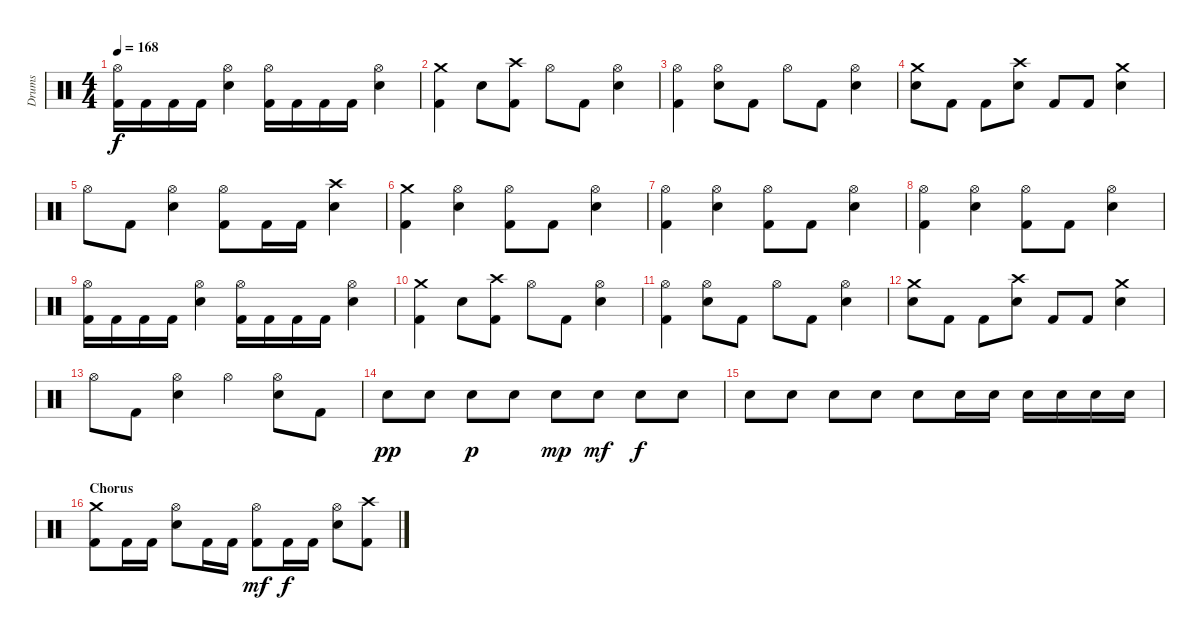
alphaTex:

\track ("Drums" "Drums") {instrument percussion}
\staff {score}
\articulation defaults
\ts (4 4)
\tempo 168
\clef neutral
\ks c
("Kick (hit) 2" "Hi-Hat (open)").16{dy f} "Kick (hit) 2".16 "Kick (hit) 2".16 "Kick (hit) 2".16 ("Electric Snare (hit)" "Hi-Hat (open)").4 ("Kick (hit) 2" "Hi-Hat (open)").16 "Kick (hit) 2".16 "Kick (hit) 2".16 "Kick (hit) 2".16 ("Electric Snare (hit)" "Hi-Hat (open)").4 |
("Kick (hit) 2" "Crash medium (hit)").4 "Electric Snare (hit)".8 ("Kick (hit) 2" "Crash high (hit)").8 "Hi-Hat (open)".8 "Kick (hit) 2".8 ("Electric Snare (hit)" "Hi-Hat (open)").4 |
("Kick (hit) 2" "Hi-Hat (open)").4 ("Electric Snare (hit)" "Hi-Hat (open)").8 "Kick (hit) 2".8 "Hi-Hat (open)".8 "Kick (hit) 2".8 ("Electric Snare (hit)" "Hi-Hat (open)").4 |
("Electric Snare (hit)" "Crash medium (hit)").8 "Kick (hit) 2".8 "Kick (hit) 2".8 ("Electric Snare (hit)" "Crash high (hit)").8 "Kick (hit) 2".8 "Kick (hit) 2".8 ("Electric Snare (hit)" "Crash medium (hit)").4 |
"Hi-Hat (open)".8 "Kick (hit) 2".8 ("Electric Snare (hit)" "Hi-Hat (open)").4 ("Kick (hit) 2" "Hi-Hat (open)").8 "Kick (hit) 2".16 "Kick (hit) 2".16 ("Electric Snare (hit)" "Crash high (hit)").4 |
\section ("" "")
("Kick (hit) 2" "Crash medium (hit)").4 ("Electric Snare (hit)" "Hi-Hat (open)").4 ("Kick (hit) 2" "Hi-Hat (open)").8 "Kick (hit) 2".8 ("Electric Snare (hit)" "Hi-Hat (open)").4 |
("Kick (hit) 2" "Hi-Hat (open)").4 ("Electric Snare (hit)" "Hi-Hat (open)").4 ("Kick (hit) 2" "Hi-Hat (open)").8 "Kick (hit) 2".8 ("Electric Snare (hit)" "Hi-Hat (open)").4 |
("Kick (hit) 2" "Hi-Hat (open)").4 ("Electric Snare (hit)" "Hi-Hat (open)").4 ("Kick (hit) 2" "Hi-Hat (open)").8 "Kick (hit) 2".8 ("Electric Snare (hit)" "Hi-Hat (open)").4 |
("Kick (hit) 2" "Hi-Hat (open)").16 "Kick (hit) 2".16 "Kick (hit) 2".16 "Kick (hit) 2".16 ("Electric Snare (hit)" "Hi-Hat (open)").4 ("Kick (hit) 2" "Hi-Hat (open)").16 "Kick (hit) 2".16 "Kick (hit) 2".16 "Kick (hit) 2".16 ("Electric Snare (hit)" "Hi-Hat (open)").4 |
("Kick (hit) 2" "Crash medium (hit)").4 "Electric Snare (hit)".8 ("Kick (hit) 2" "Crash high (hit)").8 "Hi-Hat (open)".8 "Kick (hit) 2".8 ("Electric Snare (hit)" "Hi-Hat (open)").4 |
("Kick (hit) 2" "Hi-Hat (open)").4 ("Electric Snare (hit)" "Hi-Hat (open)").8 "Kick (hit) 2".8 "Hi-Hat (open)".8 "Kick (hit) 2".8 ("Electric Snare (hit)" "Hi-Hat (open)").4 |
("Electric Snare (hit)" "Crash medium (hit)").8 "Kick (hit) 2".8 "Kick (hit) 2".8 ("Electric Snare (hit)" "Crash high (hit)").8 "Kick (hit) 2".8 "Kick (hit) 2".8 ("Electric Snare (hit)" "Crash medium (hit)").4 |
"Hi-Hat (open)".8 "Kick (hit) 2".8 ("Electric Snare (hit)" "Hi-Hat (open)").4 "Hi-Hat (open)".4 ("Electric Snare (hit)" "Hi-Hat (open)").8 "Kick (hit) 2".8 |
"Electric Snare (hit)".8{dy pp} "Electric Snare (hit)".8 "Electric Snare (hit)".8{dy p} "Electric Snare (hit)".8 "Electric Snare (hit)".8{dy mp} "Electric Snare (hit)".8{dy mf} "Electric Snare (hit)".8{dy f} "Electric Snare (hit)".8 |
"Electric Snare (hit)".8 "Electric Snare (hit)".8 "Electric Snare (hit)".8 "Electric Snare (hit)".8 "Electric Snare (hit)".8 "Electric Snare (hit)".16 "Electric Snare (hit)".16 "Electric Snare (hit)".16 "Electric Snare (hit)".16 "Electric Snare (hit)".16 "Electric Snare (hit)".16 |
\section ("" "Chorus")
("Kick (hit) 2" "Crash medium (hit)").8 "Kick (hit) 2".16 "Kick (hit) 2".16 ("Electric Snare (hit)" "Hi-Hat (open)").8 "Kick (hit) 2".16 "Kick (hit) 2".16 ("Kick (hit) 2" "Hi-Hat (open)").8{dy mf} "Kick (hit) 2".16{dy f} "Kick (hit) 2".16 ("Electric Snare (hit)" "Hi-Hat (open)").8 ("Kick (hit) 2" "Crash high (hit)").8
